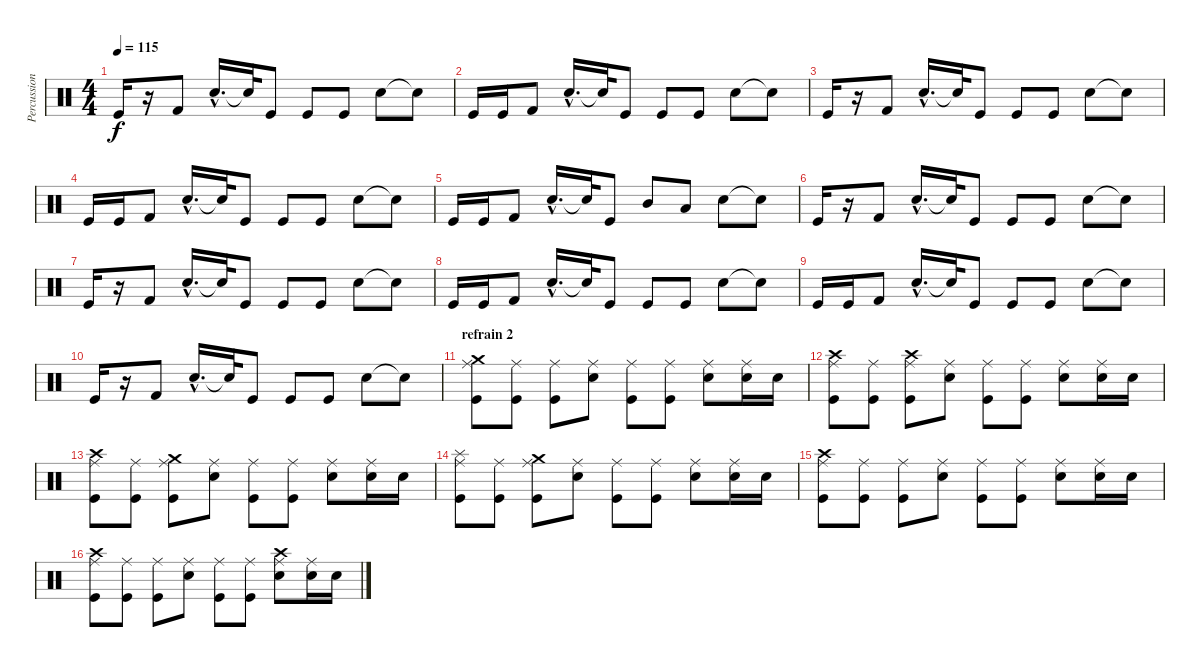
\track ("Percussions" "Percussion") {instrument percussion}
\staff {score}
\articulation defaults
\ts (4 4)
\tempo 115
\clef neutral
\ks c "Kick (hit)".16{dy f}
r.16 "Kick (hit) 2".8 "Electric Snare (hit)"{hac}.16{d} "Snare (hit)"{t}.32 "Kick (hit)".8 "Kick (hit)".8 "Kick (hit)".8 "Electric Snare (hit)".8 "Snare (hit)"{t}.8 |
"Kick (hit)".16 "Kick (hit)".16 "Kick (hit) 2".8 "Electric Snare (hit)"{hac}.16{d} "Snare (hit)"{t}.32 "Kick (hit)".8 "Kick (hit)".8 "Kick (hit)".8 "Electric Snare (hit)".8 "Snare (hit)"{t}.8 |
"Kick (hit)".16 r.16 "Kick (hit) 2".8 "Electric Snare (hit)"{hac}.16{d} "Snare (hit)"{t}.32 "Kick (hit)".8 "Kick (hit)".8 "Kick (hit)".8 "Electric Snare (hit)".8 "Snare (hit)"{t}.8 |
"Kick (hit)".16 "Kick (hit)".16 "Kick (hit) 2".8 "Electric Snare (hit)"{hac}.16{d} "Snare (hit)"{t}.32 "Kick (hit)".8 "Kick (hit)".8 "Kick (hit)".8 "Electric Snare (hit)".8 "Snare (hit)"{t}.8 |
"Kick (hit)".16 "Kick (hit)".16 "Kick (hit) 2".8 "Electric Snare (hit)"{hac}.16{d} "Snare (hit)"{t}.32 "Kick (hit)".8 "Mid Tom (hit)".8 "Low Tom (hit)".8 "Electric Snare (hit)".8 "Snare (hit)"{t}.8 |
"Kick (hit)".16 r.16 "Kick (hit) 2".8 "Electric Snare (hit)"{hac}.16{d} "Snare (hit)"{t}.32 "Kick (hit)".8 "Kick (hit)".8 "Kick (hit)".8 "Electric Snare (hit)".8 "Snare (hit)"{t}.8 |
"Kick (hit)".16 r.16 "Kick (hit) 2".8 "Electric Snare (hit)"{hac}.16{d} "Snare (hit)"{t}.32 "Kick (hit)".8 "Kick (hit)".8 "Kick (hit)".8 "Electric Snare (hit)".8 "Snare (hit)"{t}.8 |
"Kick (hit)".16 "Kick (hit)".16 "Kick (hit) 2".8 "Electric Snare (hit)"{hac}.16{d} "Snare (hit)"{t}.32 "Kick (hit)".8 "Kick (hit)".8 "Kick (hit)".8 "Electric Snare (hit)".8 "Snare (hit)"{t}.8 |
"Kick (hit)".16 "Kick (hit)".16 "Kick (hit) 2".8 "Electric Snare (hit)"{hac}.16{d} "Snare (hit)"{t}.32 "Kick (hit)".8 "Kick (hit)".8 "Kick (hit)".8 "Electric Snare (hit)".8 "Snare (hit)"{t}.8 |
"Kick (hit)".16 r.16 "Kick (hit) 2".8 "Electric Snare (hit)"{hac}.16{d} "Snare (hit)"{t}.32 "Kick (hit)".8 "Kick (hit)".8 "Kick (hit)".8 "Electric Snare (hit)".8 "Snare (hit)"{t}.8 |
\section ("" "refrain 2")
("Ride (middle)" "Crash medium (hit)" "Kick (hit)").8 ("Ride (middle)" "Kick (hit)").8 ("Ride (middle)" "Kick (hit)").8 ("Ride (middle)" "Electric Snare (hit)").8 ("Ride (middle)" "Kick (hit)").8 ("Ride (middle)" "Kick (hit)").8 ("Ride (middle)" "Electric Snare (hit)").8 ("Ride (middle)" "Electric Snare (hit)").16 "Electric Snare (hit)".16 |
("Ride (middle)" "Crash high (hit)" "Kick (hit)").8 ("Ride (middle)" "Kick (hit)").8 ("Ride (middle)" "Crash high (hit)" "Kick (hit)").8 ("Ride (middle)" "Electric Snare (hit)").8 ("Ride (middle)" "Kick (hit)").8 ("Ride (middle)" "Kick (hit)").8 ("Ride (middle)" "Electric Snare (hit)").8 ("Ride (middle)" "Electric Snare (hit)").16 "Electric Snare (hit)".16 |
("Ride (middle)" "Crash high (hit)" "Kick (hit)").8 ("Ride (middle)" "Kick (hit)").8 ("Ride (middle)" "Crash medium (hit)" "Kick (hit)").8 ("Ride (middle)" "Electric Snare (hit)").8 ("Ride (middle)" "Kick (hit)").8 ("Ride (middle)" "Kick (hit)").8 ("Ride (middle)" "Electric Snare (hit)").8 ("Ride (middle)" "Electric Snare (hit)").16 "Electric Snare (hit)".16 |
("Ride (middle)" "Splash (hit)" "Kick (hit)").8 ("Ride (middle)" "Kick (hit)").8 ("Ride (middle)" "Crash medium (hit)" "Kick (hit)").8 ("Ride (middle)" "Electric Snare (hit)").8 ("Ride (middle)" "Kick (hit)").8 ("Ride (middle)" "Kick (hit)").8 ("Ride (middle)" "Electric Snare (hit)").8 ("Ride (middle)" "Electric Snare (hit)").16 "Electric Snare (hit)".16 |
("Ride (middle)" "Crash high (hit)" "Kick (hit)").8 ("Ride (middle)" "Kick (hit)").8 ("Ride (middle)" "Kick (hit)").8 ("Ride (middle)" "Electric Snare (hit)").8 ("Ride (middle)" "Kick (hit)").8 ("Ride (middle)" "Kick (hit)").8 ("Ride (middle)" "Electric Snare (hit)").8 ("Ride (middle)" "Electric Snare (hit)").16 "Electric Snare (hit)".16 |
("Ride (middle)" "Crash high (hit)" "Kick (hit)").8 ("Ride (middle)" "Kick (hit)").8 ("Ride (middle)" "Kick (hit)").8 ("Ride (middle)" "Electric Snare (hit)").8 ("Ride (middle)" "Kick (hit)").8 ("Ride (middle)" "Kick (hit)").8 ("Ride (middle)" "Crash high (hit)" "Electric Snare (hit)").8 ("Ride (middle)" "Electric Snare (hit)").16 "Electric Snare (hit)".16
